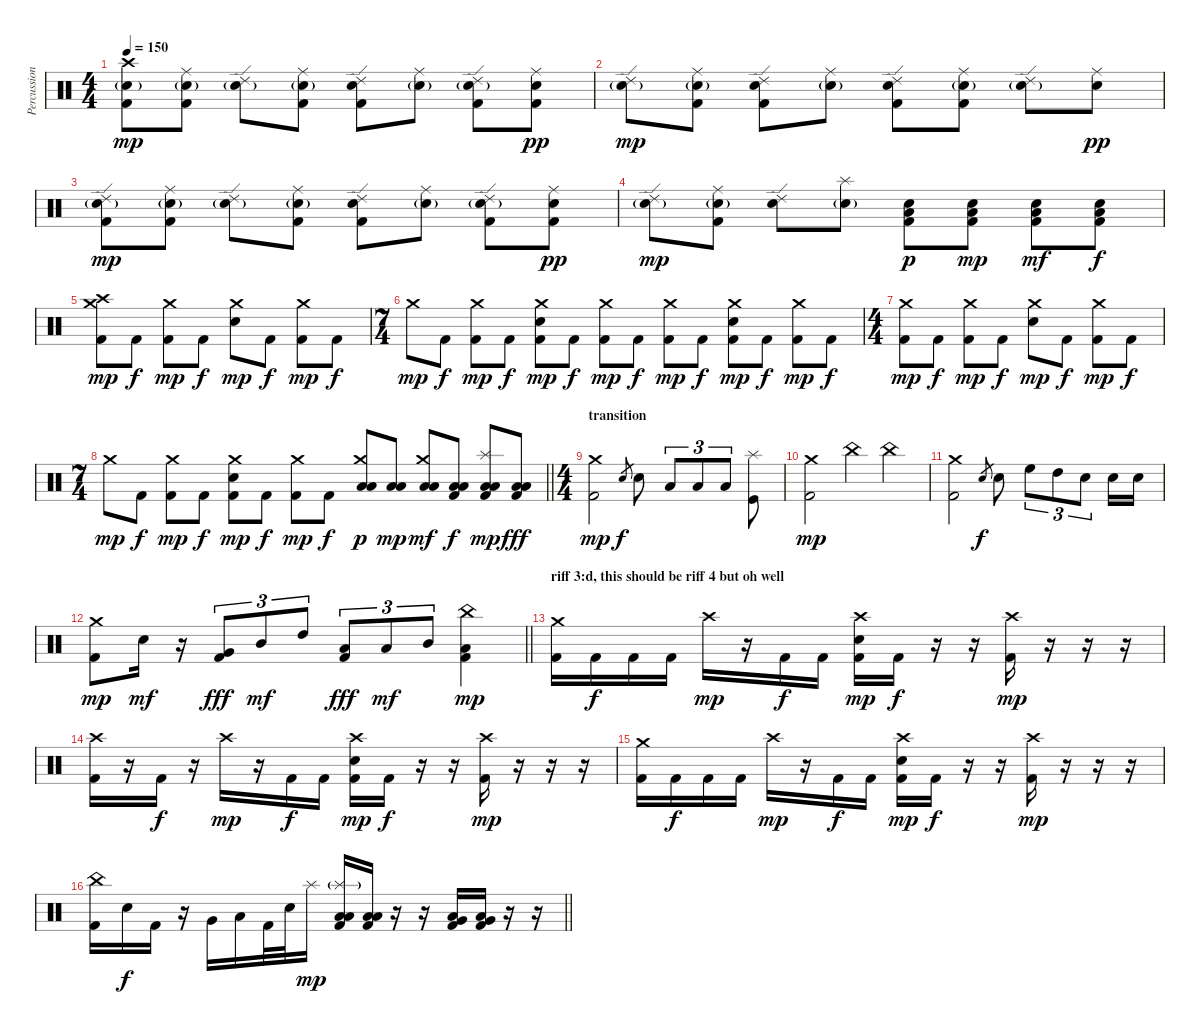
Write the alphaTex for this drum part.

\track ("Percussion" "Percussion") {instrument percussion}
\staff {score}
\articulation defaults
\ts (4 4)
\tempo 150
\clef neutral
\ks c
("Crash high (hit)" "Electric Snare (hit)"{g} "Kick (hit) 2").8{dy mp} ("Ride (middle)" "Electric Snare (hit)"{g} "Kick (hit) 2").8 ("Ride (edge) 2" "Electric Snare (hit)"{g}).8 ("Ride (middle)" "Electric Snare (hit)"{g} "Kick (hit) 2").8 ("Ride (edge) 2" "Electric Snare (hit)" "Kick (hit) 2").8 ("Ride (middle)" "Electric Snare (hit)"{g}).8 ("Ride (edge) 2" "Electric Snare (hit)"{g} "Kick (hit) 2").8 ("Ride (middle)" "Electric Snare (hit)" "Kick (hit) 2").8{dy pp} |
("Ride (edge) 2" "Electric Snare (hit)"{g}).8{dy mp} ("Ride (middle)" "Electric Snare (hit)"{g} "Kick (hit) 2").8 ("Ride (edge) 2" "Electric Snare (hit)" "Kick (hit) 2").8 ("Ride (middle)" "Electric Snare (hit)"{g}).8 ("Ride (edge) 2" "Electric Snare (hit)" "Kick (hit) 2").8 ("Ride (middle)" "Electric Snare (hit)"{g} "Kick (hit) 2").8 ("Ride (edge) 2" "Electric Snare (hit)"{g}).8 ("Ride (middle)" "Electric Snare (hit)").8{dy pp} |
("Ride (edge) 2" "Electric Snare (hit)"{g} "Kick (hit) 2").8{dy mp} ("Ride (middle)" "Electric Snare (hit)"{g} "Kick (hit) 2").8 ("Ride (edge) 2" "Electric Snare (hit)"{g}).8 ("Ride (middle)" "Electric Snare (hit)"{g} "Kick (hit) 2").8 ("Ride (edge) 2" "Electric Snare (hit)" "Kick (hit) 2").8 ("Ride (middle)" "Electric Snare (hit)"{g}).8 ("Ride (edge) 2" "Electric Snare (hit)"{g} "Kick (hit) 2").8 ("Ride (middle)" "Electric Snare (hit)" "Kick (hit) 2").8{dy pp} |
("Ride (edge) 2" "Electric Snare (hit)"{g}).8{dy mp} ("Ride (middle)" "Electric Snare (hit)"{g} "Kick (hit) 2").8 ("Ride (edge) 2" "Electric Snare (hit)").8 ("Splash (hit)" "Electric Snare (hit)"{g}).8 ("Low Floor Tom (hit)" "Electric Snare (hit)" "Kick (hit) 2").8{dy p} ("Low Floor Tom (hit)" "Electric Snare (hit)" "Kick (hit) 2").8{dy mp} ("Low Floor Tom (hit)" "Electric Snare (hit)" "Kick (hit) 2").8{dy mf} ("Low Floor Tom (hit)" "Electric Snare (hit)" "Kick (hit) 2").8{dy f} |
("Crash medium (hit)" "Crash high (hit)" "Kick (hit) 2").8{dy mp} "Kick (hit) 2".8{dy f} ("Crash medium (hit)" "Kick (hit) 2").8{dy mp} "Kick (hit) 2".8{dy f} ("Crash medium (hit)" "Electric Snare (hit)").8{dy mp} "Kick (hit) 2".8{dy f} ("Crash medium (hit)" "Kick (hit) 2").8{dy mp} "Kick (hit) 2".8{dy f} |
\ts (7 4)
"Crash medium (hit)".8{dy mp} "Kick (hit) 2".8{dy f} ("Crash medium (hit)" "Kick (hit) 2").8{dy mp} "Kick (hit) 2".8{dy f} ("Crash medium (hit)" "Electric Snare (hit)" "Kick (hit) 2").8{dy mp} "Kick (hit) 2".8{dy f} ("Crash medium (hit)" "Kick (hit) 2").8{dy mp} "Kick (hit) 2".8{dy f} ("Crash medium (hit)" "Kick (hit) 2").8{dy mp} "Kick (hit) 2".8{dy f} ("Crash medium (hit)" "Electric Snare (hit)" "Kick (hit) 2").8{dy mp} "Kick (hit) 2".8{dy f} ("Crash medium (hit)" "Kick (hit) 2").8{dy mp} "Kick (hit) 2".8{dy f} |
\ts (4 4)
("Crash medium (hit)" "Kick (hit) 2").8{dy mp} "Kick (hit) 2".8{dy f} ("Crash medium (hit)" "Kick (hit) 2").8{dy mp} "Kick (hit) 2".8{dy f} ("Crash medium (hit)" "Electric Snare (hit)").8{dy mp} "Kick (hit) 2".8{dy f} ("Crash medium (hit)" "Kick (hit) 2").8{dy mp} "Kick (hit) 2".8{dy f} |
\ts (7 4)
\barLineRight lightlight "Crash medium (hit)".8{dy mp} "Kick (hit) 2".8{dy f}
("Crash medium (hit)" "Kick (hit) 2").8{dy mp} "Kick (hit) 2".8{dy f} ("Crash medium (hit)" "Electric Snare (hit)" "Kick (hit) 2").8{dy mp} "Kick (hit) 2".8{dy f} ("Crash medium (hit)" "Kick (hit) 2").8{dy mp} "Kick (hit) 2".8{dy f} ("Crash medium (hit)" "Low Tom (hit)" "Low Floor Tom (hit)").8{dy p} ("Low Tom (hit)" "Low Floor Tom (hit)").8{dy mp} ("Crash medium (hit)" "Low Tom (hit)" "Low Floor Tom (hit)").8{dy mf} ("Low Tom (hit)" "Low Floor Tom (hit)" "Kick (hit) 2").8{dy f} ("Splash (hit)" "Low Tom (hit)" "Low Floor Tom (hit)" "Kick (hit) 2").8{dy mp} ("Low Tom (hit)" "Low Floor Tom (hit)" "Kick (hit) 2").8{dy fff} |
\ts (4 4)
\section ("" "transition")
("Crash medium (hit)" "Kick (hit) 2").2{dy mp} "Electric Snare (hit)".8{gr dy f} "Electric Snare (hit)".8 "Low Tom (hit)".8{tu (3 2)} "Low Tom (hit)".8{tu (3 2)} "Low Floor Tom (hit)".8{tu (3 2)} ("Splash (hit)" "Kick (hit)").8 |
("Crash medium (hit)" "Kick (hit) 2").2{dy mp} "China (hit)".4 "China (hit)".4 |
("Crash medium (hit)" "Kick (hit) 2").2 "Electric Snare (hit)".8{gr dy f} "Electric Snare (hit)".8 "High Floor Tom (hit)".8{tu (3 2)} "High Tom (hit)".8{tu (3 2)} "Electric Snare (hit)".8{tu (3 2)} "Electric Snare (hit)".16 "Electric Snare (hit)".16 |
\barLineRight lightlight
("Crash medium (hit)" "Kick (hit) 2").8{dy mp} "Electric Snare (hit)".16{dy mf} r.16 ("Very Low Tom (hit)" "Kick (hit) 2").8{tu (3 2) dy fff} "Mid Tom (hit)".8{tu (3 2) dy mf} "High Tom (hit)".8{tu (3 2)} ("Low Floor Tom (hit)" "Kick (hit) 2").8{tu (3 2) dy fff} "Low Tom (hit)".8{tu (3 2) dy mf} "Mid Tom (hit)".8{tu (3 2)} ("China (hit)" "Low Floor Tom (hit)" "Kick (hit) 2").4{dy mp} |
\section ("" "riff 3:d, this should be riff 4 but oh well")
("Crash medium (hit)" "Kick (hit) 2").16 "Kick (hit) 2".16{dy f} "Kick (hit) 2".16 "Kick (hit) 2".16 "Crash high (hit)".16{dy mp} r.16 "Kick (hit) 2".16{dy f} "Kick (hit) 2".16 ("Crash high (hit)" "Electric Snare (hit)" "Kick (hit) 2").16{dy mp} "Kick (hit) 2".16{dy f} r.16 r.16 ("Crash high (hit)" "Kick (hit) 2").16{dy mp} r.16 r.16 r.16 |
("Crash high (hit)" "Kick (hit) 2").16 r.16 "Kick (hit) 2".16{dy f} r.16 "Crash high (hit)".16{dy mp} r.16 "Kick (hit) 2".16{dy f} "Kick (hit) 2".16 ("Crash high (hit)" "Electric Snare (hit)" "Kick (hit) 2").16{dy mp} "Kick (hit) 2".16{dy f} r.16 r.16 ("Crash high (hit)" "Kick (hit) 2").16{dy mp} r.16 r.16 r.16 |
("Crash medium (hit)" "Kick (hit) 2").16 "Kick (hit) 2".16{dy f} "Kick (hit) 2".16 "Kick (hit) 2".16 "Crash high (hit)".16{dy mp} r.16 "Kick (hit) 2".16{dy f} "Kick (hit) 2".16 ("Crash high (hit)" "Electric Snare (hit)" "Kick (hit) 2").16{dy mp} "Kick (hit) 2".16{dy f} r.16 r.16 ("Crash high (hit)" "Kick (hit) 2").16{dy mp} r.16 r.16 r.16 |
\barLineRight lightlight
("China (hit)" "Kick (hit) 2").16 "Electric Snare (hit)".16{dy f} "Kick (hit) 2".16 r.16 "Very Low Tom (hit)".16 "Low Floor Tom (hit)".16 "Kick (hit) 2".32 "Electric Snare (hit)".32 "Splash (hit)".16{dy mp} ("Splash (hit)"{g} "Low Tom (hit)" "Low Floor Tom (hit)" "Kick (hit) 2").16 ("Low Tom (hit)" "Low Floor Tom (hit)" "Kick (hit) 2").16 r.16 r.16 ("Very Low Tom (hit)" "Low Floor Tom (hit)" "Kick (hit) 2").16 ("Very Low Tom (hit)" "Low Floor Tom (hit)" "Kick (hit) 2").16 r.16 r.16
